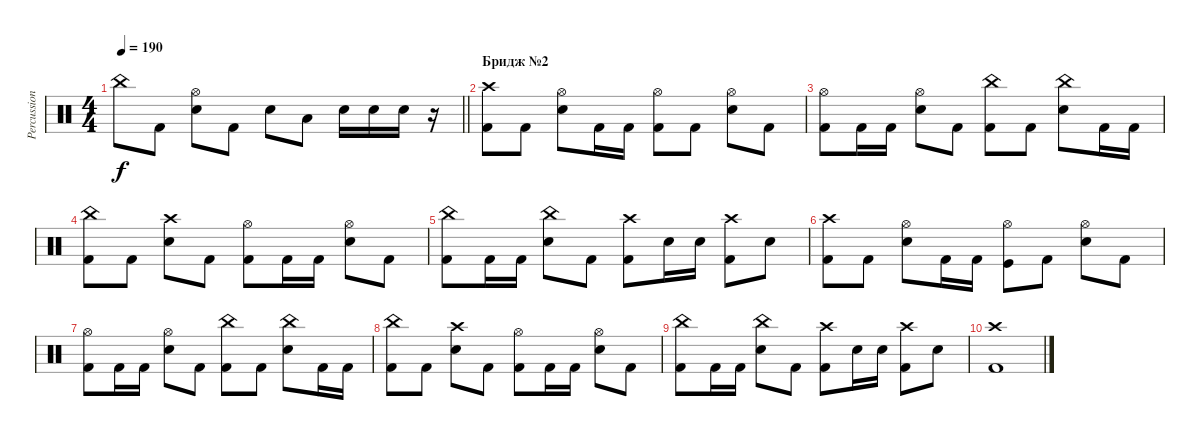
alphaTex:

\track ("Percussions" "Percussion") {instrument percussion}
\staff {score}
\articulation defaults
\ts (4 4)
\tempo 190
\clef neutral
\barLineRight lightlight
\ks c "China (hit)".8{dy f} "Kick (hit) 2".8
("Electric Snare (hit)" "Hi-Hat (open)").8 "Kick (hit) 2".8 "Electric Snare (hit)".8 "Low Floor Tom (hit)".8 "Electric Snare (hit)".16 "Electric Snare (hit)".16 "Electric Snare (hit)".16 r.16 |
\section ("" "Бридж №2")
("Kick (hit) 2" "Crash high (hit)").8 "Kick (hit) 2".8 ("Electric Snare (hit)" "Hi-Hat (open)").8 "Kick (hit) 2".16 "Kick (hit) 2".16 ("Kick (hit) 2" "Hi-Hat (open)").8 "Kick (hit) 2".8 ("Hi-Hat (open)" "Electric Snare (hit)").8 "Kick (hit) 2".8 |
("Kick (hit) 2" "Hi-Hat (open)").8 "Kick (hit) 2".16 "Kick (hit) 2".16 ("Hi-Hat (open)" "Electric Snare (hit)").8 "Kick (hit) 2".8 ("Kick (hit) 2" "China (hit)").8 "Kick (hit) 2".8 ("Electric Snare (hit)" "China (hit)").8 "Kick (hit) 2".16 "Kick (hit) 2".16 |
("Kick (hit) 2" "China (hit)").8 "Kick (hit) 2".8 ("Electric Snare (hit)" "Crash high (hit)").8 "Kick (hit) 2".8 ("Kick (hit) 2" "Hi-Hat (open)").8 "Kick (hit) 2".16 "Kick (hit) 2".16 ("Electric Snare (hit)" "Hi-Hat (open)").8 "Kick (hit) 2".8 |
("Kick (hit) 2" "China (hit)").8 "Kick (hit) 2".16 "Kick (hit) 2".16 ("Electric Snare (hit)" "China (hit)").8 "Kick (hit) 2".8 ("Kick (hit) 2" "Crash high (hit)").8 "Electric Snare (hit)".16 "Electric Snare (hit)".16 ("Kick (hit) 2" "Crash high (hit)").8 "Electric Snare (hit)".8 |
("Kick (hit) 2" "Crash high (hit)").8 "Kick (hit) 2".8 ("Electric Snare (hit)" "Hi-Hat (open)").8 "Kick (hit) 2".16 "Kick (hit) 2".16 ("Kick (hit)" "Hi-Hat (open)").8 "Kick (hit) 2".8 ("Hi-Hat (open)" "Electric Snare (hit)").8 "Kick (hit) 2".8 |
("Kick (hit) 2" "Hi-Hat (open)").8 "Kick (hit) 2".16 "Kick (hit) 2".16 ("Hi-Hat (open)" "Electric Snare (hit)").8 "Kick (hit) 2".8 ("Kick (hit) 2" "China (hit)").8 "Kick (hit) 2".8 ("Electric Snare (hit)" "China (hit)").8 "Kick (hit) 2".16 "Kick (hit) 2".16 |
("Kick (hit) 2" "China (hit)").8 "Kick (hit) 2".8 ("Electric Snare (hit)" "Crash high (hit)").8 "Kick (hit) 2".8 ("Kick (hit) 2" "Hi-Hat (open)").8 "Kick (hit) 2".16 "Kick (hit) 2".16 ("Electric Snare (hit)" "Hi-Hat (open)").8 "Kick (hit) 2".8 |
("Kick (hit) 2" "China (hit)").8 "Kick (hit) 2".16 "Kick (hit) 2".16 ("Electric Snare (hit)" "China (hit)").8 "Kick (hit) 2".8 ("Kick (hit) 2" "Crash high (hit)").8 "Electric Snare (hit)".16 "Electric Snare (hit)".16 ("Kick (hit) 2" "Crash high (hit)").8 "Electric Snare (hit)".8 |
("Kick (hit) 2" "Crash high (hit)").1
